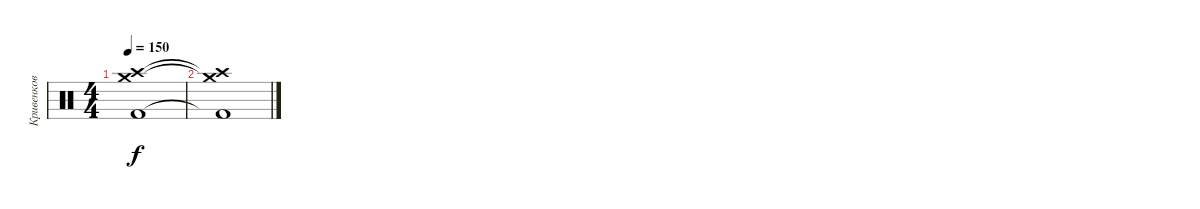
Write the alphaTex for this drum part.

\track ("Кривенков" "Кривенков") {instrument percussion}
\staff {score}
\articulation defaults
\ts (4 4)
\tempo 150
\clef neutral
\ks c
("Crash high (hit)"{t} "Crash medium (hit)"{t} "Kick (hit) 2"{t}).1{dy f} |
("Crash high (hit)"{t} "Crash medium (hit)"{t} "Kick (hit) 2"{t}).1
